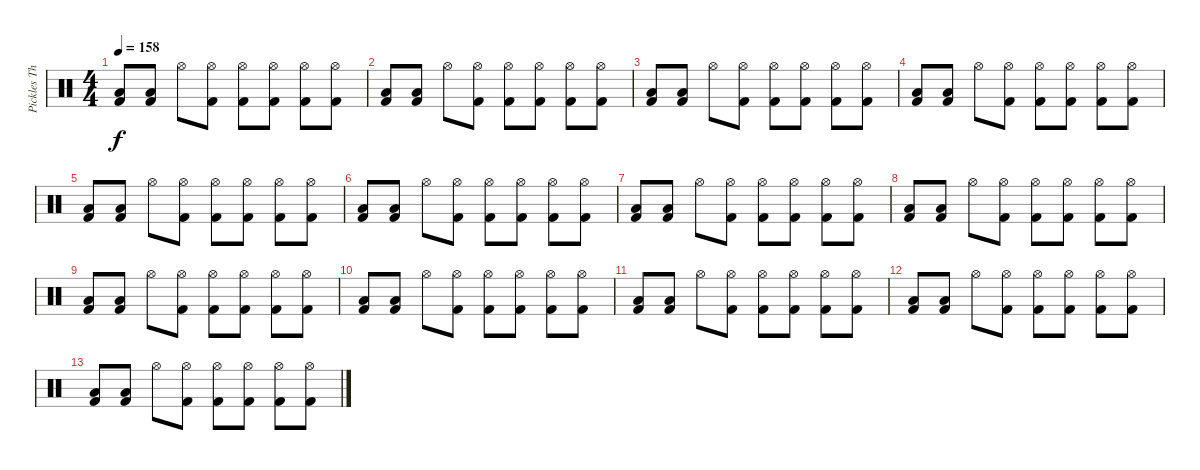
\track ("Pickles The Drummer" "Pickles Th") {instrument percussion}
\staff {score}
\articulation defaults
\ts (4 4)
\tempo 158
\clef neutral
\ks c
("Low Floor Tom (hit)" "Kick (hit) 2").8{dy f} ("Low Floor Tom (hit)" "Kick (hit) 2").8 "Hi-Hat (open)".8 ("Kick (hit) 2" "Hi-Hat (open)").8 ("Kick (hit) 2" "Hi-Hat (open)").8 ("Kick (hit) 2" "Hi-Hat (open)").8 ("Kick (hit) 2" "Hi-Hat (open)").8 ("Kick (hit) 2" "Hi-Hat (open)").8 |
("Low Floor Tom (hit)" "Kick (hit) 2").8 ("Low Floor Tom (hit)" "Kick (hit) 2").8 "Hi-Hat (open)".8 ("Kick (hit) 2" "Hi-Hat (open)").8 ("Kick (hit) 2" "Hi-Hat (open)").8 ("Kick (hit) 2" "Hi-Hat (open)").8 ("Kick (hit) 2" "Hi-Hat (open)").8 ("Kick (hit) 2" "Hi-Hat (open)").8 |
("Low Floor Tom (hit)" "Kick (hit) 2").8 ("Low Floor Tom (hit)" "Kick (hit) 2").8 "Hi-Hat (open)".8 ("Kick (hit) 2" "Hi-Hat (open)").8 ("Kick (hit) 2" "Hi-Hat (open)").8 ("Kick (hit) 2" "Hi-Hat (open)").8 ("Kick (hit) 2" "Hi-Hat (open)").8 ("Kick (hit) 2" "Hi-Hat (open)").8 |
("Low Floor Tom (hit)" "Kick (hit) 2").8 ("Low Floor Tom (hit)" "Kick (hit) 2").8 "Hi-Hat (open)".8 ("Kick (hit) 2" "Hi-Hat (open)").8 ("Kick (hit) 2" "Hi-Hat (open)").8 ("Kick (hit) 2" "Hi-Hat (open)").8 ("Kick (hit) 2" "Hi-Hat (open)").8 ("Kick (hit) 2" "Hi-Hat (open)").8 |
("Low Floor Tom (hit)" "Kick (hit) 2").8 ("Low Floor Tom (hit)" "Kick (hit) 2").8 "Hi-Hat (open)".8 ("Kick (hit) 2" "Hi-Hat (open)").8 ("Kick (hit) 2" "Hi-Hat (open)").8 ("Kick (hit) 2" "Hi-Hat (open)").8 ("Kick (hit) 2" "Hi-Hat (open)").8 ("Kick (hit) 2" "Hi-Hat (open)").8 |
("Low Floor Tom (hit)" "Kick (hit) 2").8 ("Low Floor Tom (hit)" "Kick (hit) 2").8 "Hi-Hat (open)".8 ("Kick (hit) 2" "Hi-Hat (open)").8 ("Kick (hit) 2" "Hi-Hat (open)").8 ("Kick (hit) 2" "Hi-Hat (open)").8 ("Kick (hit) 2" "Hi-Hat (open)").8 ("Kick (hit) 2" "Hi-Hat (open)").8 |
("Low Floor Tom (hit)" "Kick (hit) 2").8 ("Low Floor Tom (hit)" "Kick (hit) 2").8 "Hi-Hat (open)".8 ("Kick (hit) 2" "Hi-Hat (open)").8 ("Kick (hit) 2" "Hi-Hat (open)").8 ("Kick (hit) 2" "Hi-Hat (open)").8 ("Kick (hit) 2" "Hi-Hat (open)").8 ("Kick (hit) 2" "Hi-Hat (open)").8 |
("Low Floor Tom (hit)" "Kick (hit) 2").8 ("Low Floor Tom (hit)" "Kick (hit) 2").8 "Hi-Hat (open)".8 ("Kick (hit) 2" "Hi-Hat (open)").8 ("Kick (hit) 2" "Hi-Hat (open)").8 ("Kick (hit) 2" "Hi-Hat (open)").8 ("Kick (hit) 2" "Hi-Hat (open)").8 ("Kick (hit) 2" "Hi-Hat (open)").8 |
("Low Floor Tom (hit)" "Kick (hit) 2").8 ("Low Floor Tom (hit)" "Kick (hit) 2").8 "Hi-Hat (open)".8 ("Kick (hit) 2" "Hi-Hat (open)").8 ("Kick (hit) 2" "Hi-Hat (open)").8 ("Kick (hit) 2" "Hi-Hat (open)").8 ("Kick (hit) 2" "Hi-Hat (open)").8 ("Kick (hit) 2" "Hi-Hat (open)").8 |
("Low Floor Tom (hit)" "Kick (hit) 2").8 ("Low Floor Tom (hit)" "Kick (hit) 2").8 "Hi-Hat (open)".8 ("Kick (hit) 2" "Hi-Hat (open)").8 ("Kick (hit) 2" "Hi-Hat (open)").8 ("Kick (hit) 2" "Hi-Hat (open)").8 ("Kick (hit) 2" "Hi-Hat (open)").8 ("Kick (hit) 2" "Hi-Hat (open)").8 |
("Low Floor Tom (hit)" "Kick (hit) 2").8 ("Low Floor Tom (hit)" "Kick (hit) 2").8 "Hi-Hat (open)".8 ("Kick (hit) 2" "Hi-Hat (open)").8 ("Kick (hit) 2" "Hi-Hat (open)").8 ("Kick (hit) 2" "Hi-Hat (open)").8 ("Kick (hit) 2" "Hi-Hat (open)").8 ("Kick (hit) 2" "Hi-Hat (open)").8 |
("Low Floor Tom (hit)" "Kick (hit) 2").8 ("Low Floor Tom (hit)" "Kick (hit) 2").8 "Hi-Hat (open)".8 ("Kick (hit) 2" "Hi-Hat (open)").8 ("Kick (hit) 2" "Hi-Hat (open)").8 ("Kick (hit) 2" "Hi-Hat (open)").8 ("Kick (hit) 2" "Hi-Hat (open)").8 ("Kick (hit) 2" "Hi-Hat (open)").8 |
("Low Floor Tom (hit)" "Kick (hit) 2").8 ("Low Floor Tom (hit)" "Kick (hit) 2").8 "Hi-Hat (open)".8 ("Kick (hit) 2" "Hi-Hat (open)").8 ("Kick (hit) 2" "Hi-Hat (open)").8 ("Kick (hit) 2" "Hi-Hat (open)").8 ("Kick (hit) 2" "Hi-Hat (open)").8 ("Kick (hit) 2" "Hi-Hat (open)").8
